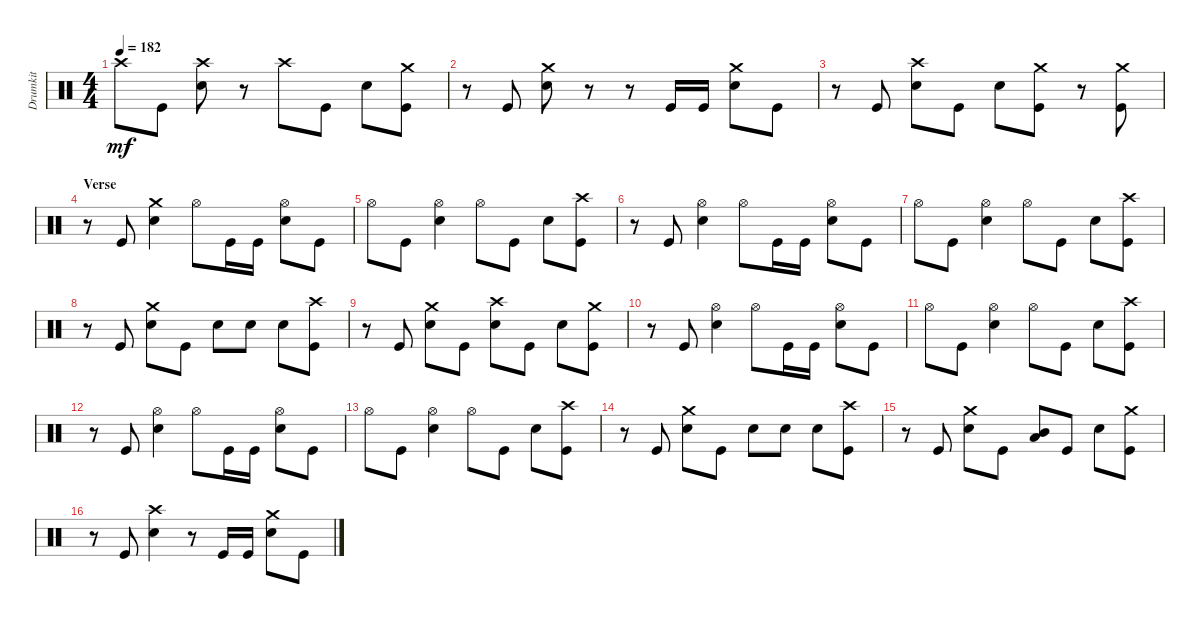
\track ("Drumkit" "Drumkit") {instrument percussion}
\staff {score}
\articulation defaults
\ts (4 4)
\tempo 182
\clef neutral
\ks c "Crash high (hit)".8{dy mf} "Kick (hit)".8
("Snare (hit) 2" "Crash high (hit)").8 r.8 "Crash high (hit)".8 "Kick (hit)".8 "Snare (hit) 2".8 ("Kick (hit)" "Crash medium (hit)").8 |
r.8 "Kick (hit)".8 ("Snare (hit) 2" "Crash medium (hit)").8 r.8 r.8 "Kick (hit)".16 "Kick (hit)".16 ("Snare (hit) 2" "Crash medium (hit)").8 "Kick (hit)".8 |
r.8 "Kick (hit)".8 ("Snare (hit) 2" "Crash high (hit)").8 "Kick (hit)".8 "Snare (hit) 2".8 ("Kick (hit)" "Crash medium (hit)").8 r.8 ("Kick (hit)" "Crash medium (hit)").8 |
\section ("" "Verse")
r.8 "Kick (hit)".8 ("Snare (hit) 2" "Crash medium (hit)").4 "Hi-Hat (open)".8 "Kick (hit)".16 "Kick (hit)".16 ("Snare (hit) 2" "Hi-Hat (open)").8 "Kick (hit)".8 |
"Hi-Hat (open)".8 "Kick (hit)".8 ("Snare (hit) 2" "Hi-Hat (open)").4 "Hi-Hat (open)".8 "Kick (hit)".8 "Snare (hit) 2".8 ("Kick (hit)" "Crash high (hit)").8 |
r.8 "Kick (hit)".8 ("Snare (hit) 2" "Hi-Hat (open)").4 "Hi-Hat (open)".8 "Kick (hit)".16 "Kick (hit)".16 ("Snare (hit) 2" "Hi-Hat (open)").8 "Kick (hit)".8 |
"Hi-Hat (open)".8 "Kick (hit)".8 ("Snare (hit) 2" "Hi-Hat (open)").4 "Hi-Hat (open)".8 "Kick (hit)".8 "Snare (hit) 2".8 ("Kick (hit)" "Crash high (hit)").8 |
r.8 "Kick (hit)".8 ("Snare (hit) 2" "Crash medium (hit)").8 "Kick (hit)".8 "Snare (hit) 2".8 "Snare (hit) 2".8 "Snare (hit) 2".8 ("Kick (hit)" "Crash high (hit)").8 |
r.8 "Kick (hit)".8 ("Snare (hit) 2" "Crash medium (hit)").8 "Kick (hit)".8 ("Snare (hit) 2" "Crash high (hit)").8 "Kick (hit)".8 "Snare (hit) 2".8 ("Kick (hit)" "Crash medium (hit)").8 |
r.8 "Kick (hit)".8 ("Snare (hit) 2" "Hi-Hat (open)").4 "Hi-Hat (open)".8 "Kick (hit)".16 "Kick (hit)".16 ("Snare (hit) 2" "Hi-Hat (open)").8 "Kick (hit)".8 |
"Hi-Hat (open)".8 "Kick (hit)".8 ("Snare (hit) 2" "Hi-Hat (open)").4 "Hi-Hat (open)".8 "Kick (hit)".8 "Snare (hit) 2".8 ("Kick (hit)" "Crash high (hit)").8 |
r.8 "Kick (hit)".8 ("Snare (hit) 2" "Hi-Hat (open)").4 "Hi-Hat (open)".8 "Kick (hit)".16 "Kick (hit)".16 ("Snare (hit) 2" "Hi-Hat (open)").8 "Kick (hit)".8 |
"Hi-Hat (open)".8 "Kick (hit)".8 ("Snare (hit) 2" "Hi-Hat (open)").4 "Hi-Hat (open)".8 "Kick (hit)".8 "Snare (hit) 2".8 ("Kick (hit)" "Crash high (hit)").8 |
r.8 "Kick (hit)".8 ("Snare (hit) 2" "Crash medium (hit)").8 "Kick (hit)".8 "Snare (hit) 2".8 "Snare (hit) 2".8 "Snare (hit) 2".8 ("Kick (hit)" "Crash high (hit)").8 |
r.8 "Kick (hit)".8 ("Snare (hit) 2" "Crash medium (hit)").8 "Kick (hit)".8 ("Low Tom (hit)" "Mid Tom (hit)").8 "Kick (hit)".8 "Snare (hit) 2".8 ("Kick (hit)" "Crash medium (hit)").8 |
r.8 "Kick (hit)".8 ("Snare (hit) 2" "Crash high (hit)").4 r.8 "Kick (hit)".16 "Kick (hit)".16 ("Snare (hit) 2" "Crash medium (hit)").8 "Kick (hit)".8
